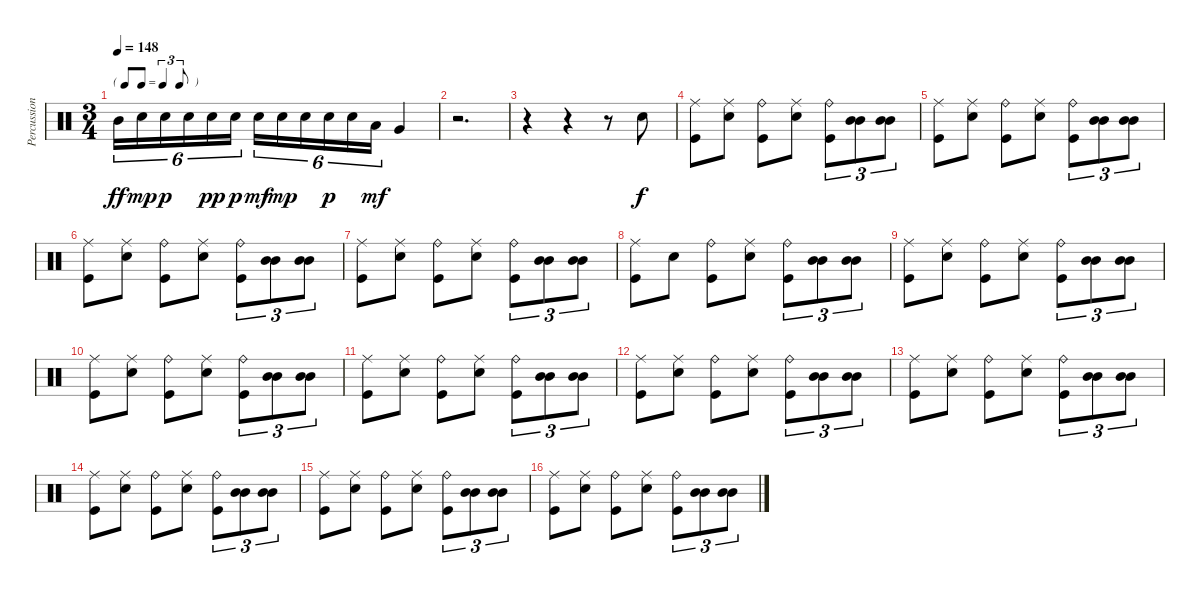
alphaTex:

\track ("Percussions" "Percussion") {instrument percussion}
\staff {score}
\articulation defaults
\ts (3 4)
\tf triplet8th
\tempo 148
\clef neutral
\ks c "Mid Tom (hit)".16{tu (6 4) dy ff} "Electric Snare (hit)".16{tu (6 4) dy mp} "Electric Snare (hit)".16{tu (6 4) dy p} "Electric Snare (hit)".16{tu (6 4)} "Electric Snare (hit)".16{tu (6 4) dy pp} "Electric Snare (hit)".16{tu (6 4) dy p} "Electric Snare (hit)".16{tu (6 4) dy mf} "Electric Snare (hit)".16{tu (6 4) dy mp} "Electric Snare (hit)".16{tu (6 4)} "Electric Snare (hit)".16{tu (6 4) dy p} "Electric Snare (hit)".16{tu (6 4)} "Low Tom (hit)".16{tu (6 4) dy mf} "Very Low Tom (hit)".4
|
r.2{d} |
r.4 r.4 r.8 "Electric Snare (hit)".8{dy f} |
("Ride (middle)" "Kick (hit)").8 ("Ride (middle)" "Electric Snare (hit)").8 ("Ride (bell)" "Kick (hit)").8 ("Ride (middle)" "Electric Snare (hit)").8 ("Ride (bell)" "Kick (hit)").8{tu (3 2)} ("Mid Tom (hit)" "Mid Tom (hit)").8{tu (3 2)} ("Mid Tom (hit)" "Mid Tom (hit)").8{tu (3 2)} |
("Ride (middle)" "Kick (hit)").8 ("Ride (middle)" "Electric Snare (hit)").8 ("Ride (bell)" "Kick (hit)").8 ("Ride (middle)" "Electric Snare (hit)").8 ("Ride (bell)" "Kick (hit)").8{tu (3 2)} ("Mid Tom (hit)" "Mid Tom (hit)").8{tu (3 2)} ("Mid Tom (hit)" "Mid Tom (hit)").8{tu (3 2)} |
("Ride (middle)" "Kick (hit)").8 ("Ride (middle)" "Electric Snare (hit)").8 ("Ride (bell)" "Kick (hit)").8 ("Ride (middle)" "Electric Snare (hit)").8 ("Ride (bell)" "Kick (hit)").8{tu (3 2)} ("Mid Tom (hit)" "Mid Tom (hit)").8{tu (3 2)} ("Mid Tom (hit)" "Mid Tom (hit)").8{tu (3 2)} |
("Ride (middle)" "Kick (hit)").8 ("Ride (middle)" "Electric Snare (hit)").8 ("Ride (bell)" "Kick (hit)").8 ("Ride (middle)" "Electric Snare (hit)").8 ("Ride (bell)" "Kick (hit)").8{tu (3 2)} ("Mid Tom (hit)" "Mid Tom (hit)").8{tu (3 2)} ("Mid Tom (hit)" "Mid Tom (hit)").8{tu (3 2)} |
("Ride (middle)" "Kick (hit)").8 "Electric Snare (hit)".8 ("Ride (bell)" "Kick (hit)").8 ("Ride (middle)" "Electric Snare (hit)").8 ("Ride (bell)" "Kick (hit)").8{tu (3 2)} ("Mid Tom (hit)" "Mid Tom (hit)").8{tu (3 2)} ("Mid Tom (hit)" "Mid Tom (hit)").8{tu (3 2)} |
("Ride (middle)" "Kick (hit)").8 ("Ride (middle)" "Electric Snare (hit)").8 ("Ride (bell)" "Kick (hit)").8 ("Ride (middle)" "Electric Snare (hit)").8 ("Ride (bell)" "Kick (hit)").8{tu (3 2)} ("Mid Tom (hit)" "Mid Tom (hit)").8{tu (3 2)} ("Mid Tom (hit)" "Mid Tom (hit)").8{tu (3 2)} |
("Ride (middle)" "Kick (hit)").8 ("Ride (middle)" "Electric Snare (hit)").8 ("Ride (bell)" "Kick (hit)").8 ("Ride (middle)" "Electric Snare (hit)").8 ("Ride (bell)" "Kick (hit)").8{tu (3 2)} ("Mid Tom (hit)" "Mid Tom (hit)").8{tu (3 2)} ("Mid Tom (hit)" "Mid Tom (hit)").8{tu (3 2)} |
("Ride (middle)" "Kick (hit)").8 ("Ride (middle)" "Electric Snare (hit)").8 ("Ride (bell)" "Kick (hit)").8 ("Ride (middle)" "Electric Snare (hit)").8 ("Ride (bell)" "Kick (hit)").8{tu (3 2)} ("Mid Tom (hit)" "Mid Tom (hit)").8{tu (3 2)} ("Mid Tom (hit)" "Mid Tom (hit)").8{tu (3 2)} |
("Ride (middle)" "Kick (hit)").8 ("Ride (middle)" "Electric Snare (hit)").8 ("Ride (bell)" "Kick (hit)").8 ("Ride (middle)" "Electric Snare (hit)").8 ("Ride (bell)" "Kick (hit)").8{tu (3 2)} ("Mid Tom (hit)" "Mid Tom (hit)").8{tu (3 2)} ("Mid Tom (hit)" "Mid Tom (hit)").8{tu (3 2)} |
("Ride (middle)" "Kick (hit)").8 ("Ride (middle)" "Electric Snare (hit)").8 ("Ride (bell)" "Kick (hit)").8 ("Ride (middle)" "Electric Snare (hit)").8 ("Ride (bell)" "Kick (hit)").8{tu (3 2)} ("Mid Tom (hit)" "Mid Tom (hit)").8{tu (3 2)} ("Mid Tom (hit)" "Mid Tom (hit)").8{tu (3 2)} |
("Ride (middle)" "Kick (hit)").8 ("Ride (middle)" "Electric Snare (hit)").8 ("Ride (bell)" "Kick (hit)").8 ("Ride (middle)" "Electric Snare (hit)").8 ("Ride (bell)" "Kick (hit)").8{tu (3 2)} ("Mid Tom (hit)" "Mid Tom (hit)").8{tu (3 2)} ("Mid Tom (hit)" "Mid Tom (hit)").8{tu (3 2)} |
("Ride (middle)" "Kick (hit)").8 ("Ride (middle)" "Electric Snare (hit)").8 ("Ride (bell)" "Kick (hit)").8 ("Ride (middle)" "Electric Snare (hit)").8 ("Ride (bell)" "Kick (hit)").8{tu (3 2)} ("Mid Tom (hit)" "Mid Tom (hit)").8{tu (3 2)} ("Mid Tom (hit)" "Mid Tom (hit)").8{tu (3 2)} |
("Ride (middle)" "Kick (hit)").8 ("Ride (middle)" "Electric Snare (hit)").8 ("Ride (bell)" "Kick (hit)").8 ("Ride (middle)" "Electric Snare (hit)").8 ("Ride (bell)" "Kick (hit)").8{tu (3 2)} ("Mid Tom (hit)" "Mid Tom (hit)").8{tu (3 2)} ("Mid Tom (hit)" "Mid Tom (hit)").8{tu (3 2)}
